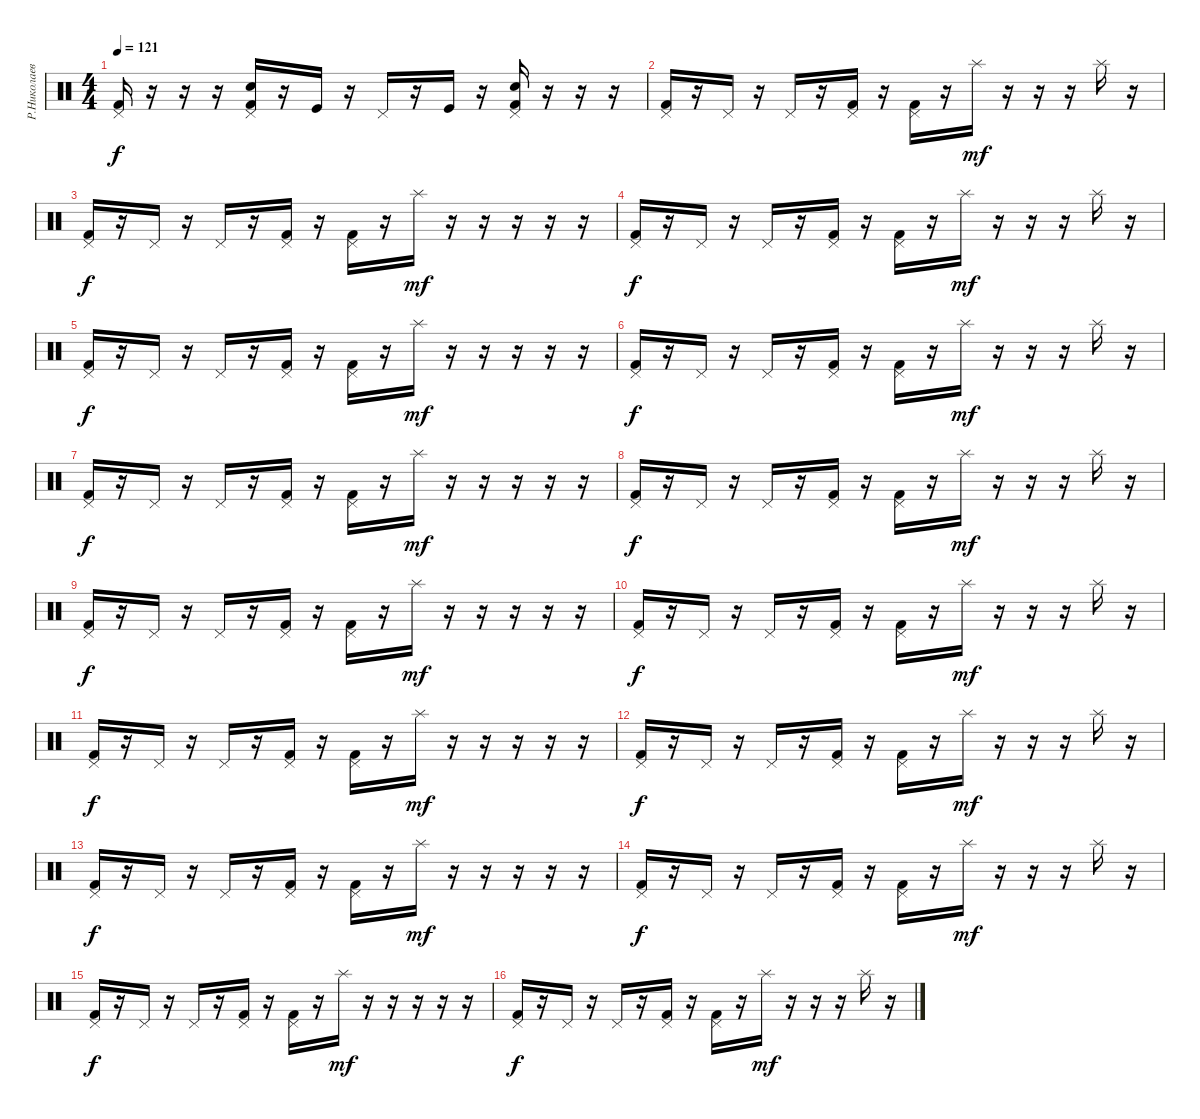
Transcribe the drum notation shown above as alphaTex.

\track ("Р.Николаев" "Р.Николаев") {instrument percussion}
\staff {score}
\articulation defaults
\ts (4 4)
\tempo 121
\clef neutral
\ks c
("Pedal Hi-Hat (hit)" "Kick (hit) 2").16{dy f} r.16 r.16 r.16 ("Pedal Hi-Hat (hit)" "Snare (hit) 2" "Kick (hit) 2").16 r.16 "Kick (hit)".16 r.16 "Pedal Hi-Hat (hit)".16 r.16 "Kick (hit)".16 r.16 ("Pedal Hi-Hat (hit)" "Snare (hit) 2" "Kick (hit) 2").16 r.16 r.16 r.16 |
("Pedal Hi-Hat (hit)" "Kick (hit) 2").16 r.16 "Pedal Hi-Hat (hit)".16 r.16 "Pedal Hi-Hat (hit)".16 r.16 ("Pedal Hi-Hat (hit)" "Kick (hit) 2").16 r.16 ("Pedal Hi-Hat (hit)" "Kick (hit) 2").16 r.16 "Splash (hit)".16{dy mf} r.16 r.16 r.16 "Splash (hit)".16 r.16 |
("Pedal Hi-Hat (hit)" "Kick (hit) 2").16{dy f} r.16 "Pedal Hi-Hat (hit)".16 r.16 "Pedal Hi-Hat (hit)".16 r.16 ("Pedal Hi-Hat (hit)" "Kick (hit) 2").16 r.16 ("Pedal Hi-Hat (hit)" "Kick (hit) 2").16 r.16 "Splash (hit)".16{dy mf} r.16 r.16 r.16 r.16 r.16 |
("Pedal Hi-Hat (hit)" "Kick (hit) 2").16{dy f} r.16 "Pedal Hi-Hat (hit)".16 r.16 "Pedal Hi-Hat (hit)".16 r.16 ("Pedal Hi-Hat (hit)" "Kick (hit) 2").16 r.16 ("Pedal Hi-Hat (hit)" "Kick (hit) 2").16 r.16 "Splash (hit)".16{dy mf} r.16 r.16 r.16 "Splash (hit)".16 r.16 |
("Pedal Hi-Hat (hit)" "Kick (hit) 2").16{dy f} r.16 "Pedal Hi-Hat (hit)".16 r.16 "Pedal Hi-Hat (hit)".16 r.16 ("Pedal Hi-Hat (hit)" "Kick (hit) 2").16 r.16 ("Pedal Hi-Hat (hit)" "Kick (hit) 2").16 r.16 "Splash (hit)".16{dy mf} r.16 r.16 r.16 r.16 r.16 |
("Pedal Hi-Hat (hit)" "Kick (hit) 2").16{dy f} r.16 "Pedal Hi-Hat (hit)".16 r.16 "Pedal Hi-Hat (hit)".16 r.16 ("Pedal Hi-Hat (hit)" "Kick (hit) 2").16 r.16 ("Pedal Hi-Hat (hit)" "Kick (hit) 2").16 r.16 "Splash (hit)".16{dy mf} r.16 r.16 r.16 "Splash (hit)".16 r.16 |
("Pedal Hi-Hat (hit)" "Kick (hit) 2").16{dy f} r.16 "Pedal Hi-Hat (hit)".16 r.16 "Pedal Hi-Hat (hit)".16 r.16 ("Pedal Hi-Hat (hit)" "Kick (hit) 2").16 r.16 ("Pedal Hi-Hat (hit)" "Kick (hit) 2").16 r.16 "Splash (hit)".16{dy mf} r.16 r.16 r.16 r.16 r.16 |
("Pedal Hi-Hat (hit)" "Kick (hit) 2").16{dy f} r.16 "Pedal Hi-Hat (hit)".16 r.16 "Pedal Hi-Hat (hit)".16 r.16 ("Pedal Hi-Hat (hit)" "Kick (hit) 2").16 r.16 ("Pedal Hi-Hat (hit)" "Kick (hit) 2").16 r.16 "Splash (hit)".16{dy mf} r.16 r.16 r.16 "Splash (hit)".16 r.16 |
("Pedal Hi-Hat (hit)" "Kick (hit) 2").16{dy f} r.16 "Pedal Hi-Hat (hit)".16 r.16 "Pedal Hi-Hat (hit)".16 r.16 ("Pedal Hi-Hat (hit)" "Kick (hit) 2").16 r.16 ("Pedal Hi-Hat (hit)" "Kick (hit) 2").16 r.16 "Splash (hit)".16{dy mf} r.16 r.16 r.16 r.16 r.16 |
("Pedal Hi-Hat (hit)" "Kick (hit) 2").16{dy f} r.16 "Pedal Hi-Hat (hit)".16 r.16 "Pedal Hi-Hat (hit)".16 r.16 ("Pedal Hi-Hat (hit)" "Kick (hit) 2").16 r.16 ("Pedal Hi-Hat (hit)" "Kick (hit) 2").16 r.16 "Splash (hit)".16{dy mf} r.16 r.16 r.16 "Splash (hit)".16 r.16 |
("Pedal Hi-Hat (hit)" "Kick (hit) 2").16{dy f} r.16 "Pedal Hi-Hat (hit)".16 r.16 "Pedal Hi-Hat (hit)".16 r.16 ("Pedal Hi-Hat (hit)" "Kick (hit) 2").16 r.16 ("Pedal Hi-Hat (hit)" "Kick (hit) 2").16 r.16 "Splash (hit)".16{dy mf} r.16 r.16 r.16 r.16 r.16 |
("Pedal Hi-Hat (hit)" "Kick (hit) 2").16{dy f} r.16 "Pedal Hi-Hat (hit)".16 r.16 "Pedal Hi-Hat (hit)".16 r.16 ("Pedal Hi-Hat (hit)" "Kick (hit) 2").16 r.16 ("Pedal Hi-Hat (hit)" "Kick (hit) 2").16 r.16 "Splash (hit)".16{dy mf} r.16 r.16 r.16 "Splash (hit)".16 r.16 |
("Pedal Hi-Hat (hit)" "Kick (hit) 2").16{dy f} r.16 "Pedal Hi-Hat (hit)".16 r.16 "Pedal Hi-Hat (hit)".16 r.16 ("Pedal Hi-Hat (hit)" "Kick (hit) 2").16 r.16 ("Pedal Hi-Hat (hit)" "Kick (hit) 2").16 r.16 "Splash (hit)".16{dy mf} r.16 r.16 r.16 r.16 r.16 |
("Pedal Hi-Hat (hit)" "Kick (hit) 2").16{dy f} r.16 "Pedal Hi-Hat (hit)".16 r.16 "Pedal Hi-Hat (hit)".16 r.16 ("Pedal Hi-Hat (hit)" "Kick (hit) 2").16 r.16 ("Pedal Hi-Hat (hit)" "Kick (hit) 2").16 r.16 "Splash (hit)".16{dy mf} r.16 r.16 r.16 "Splash (hit)".16 r.16 |
("Pedal Hi-Hat (hit)" "Kick (hit) 2").16{dy f} r.16 "Pedal Hi-Hat (hit)".16 r.16 "Pedal Hi-Hat (hit)".16 r.16 ("Pedal Hi-Hat (hit)" "Kick (hit) 2").16 r.16 ("Pedal Hi-Hat (hit)" "Kick (hit) 2").16 r.16 "Splash (hit)".16{dy mf} r.16 r.16 r.16 r.16 r.16 |
("Pedal Hi-Hat (hit)" "Kick (hit) 2").16{dy f} r.16 "Pedal Hi-Hat (hit)".16 r.16 "Pedal Hi-Hat (hit)".16 r.16 ("Pedal Hi-Hat (hit)" "Kick (hit) 2").16 r.16 ("Pedal Hi-Hat (hit)" "Kick (hit) 2").16 r.16 "Splash (hit)".16{dy mf} r.16 r.16 r.16 "Splash (hit)".16 r.16
